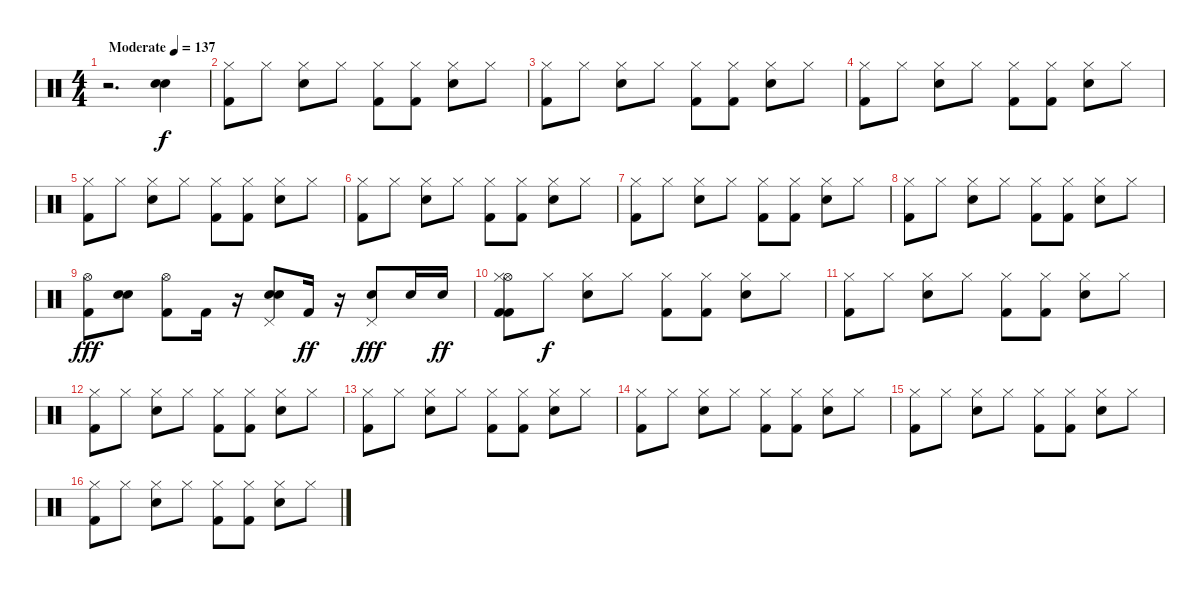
\track "" {instrument percussion}
\staff {score}
\articulation defaults
\ts (4 4)
\tempo (137 "Moderate")
\clef neutral
\ks c
r.2{d dy f} ("Electric Snare (hit)" "Electric Snare (hit)").4 |
("Kick (hit) 2" "Hi-Hat (closed)").8 "Hi-Hat (closed)".8 ("Hi-Hat (closed)" "Electric Snare (hit)").8 "Hi-Hat (closed)".8 ("Kick (hit) 2" "Hi-Hat (closed)").8 ("Kick (hit) 2" "Hi-Hat (closed)").8 ("Electric Snare (hit)" "Hi-Hat (closed)").8 "Hi-Hat (closed)".8 |
("Kick (hit) 2" "Hi-Hat (closed)").8 "Hi-Hat (closed)".8 ("Hi-Hat (closed)" "Electric Snare (hit)").8 "Hi-Hat (closed)".8 ("Kick (hit) 2" "Hi-Hat (closed)").8 ("Kick (hit) 2" "Hi-Hat (closed)").8 ("Electric Snare (hit)" "Hi-Hat (closed)").8 "Hi-Hat (closed)".8 |
("Kick (hit) 2" "Hi-Hat (closed)").8 "Hi-Hat (closed)".8 ("Hi-Hat (closed)" "Electric Snare (hit)").8 "Hi-Hat (closed)".8 ("Kick (hit) 2" "Hi-Hat (closed)").8 ("Kick (hit) 2" "Hi-Hat (closed)").8 ("Electric Snare (hit)" "Hi-Hat (closed)").8 "Hi-Hat (closed)".8 |
("Kick (hit) 2" "Hi-Hat (closed)").8 "Hi-Hat (closed)".8 ("Hi-Hat (closed)" "Electric Snare (hit)").8 "Hi-Hat (closed)".8 ("Kick (hit) 2" "Hi-Hat (closed)").8 ("Kick (hit) 2" "Hi-Hat (closed)").8 ("Electric Snare (hit)" "Hi-Hat (closed)").8 "Hi-Hat (closed)".8 |
("Kick (hit) 2" "Hi-Hat (closed)").8 "Hi-Hat (closed)".8 ("Hi-Hat (closed)" "Electric Snare (hit)").8 "Hi-Hat (closed)".8 ("Kick (hit) 2" "Hi-Hat (closed)").8 ("Kick (hit) 2" "Hi-Hat (closed)").8 ("Electric Snare (hit)" "Hi-Hat (closed)").8 "Hi-Hat (closed)".8 |
("Kick (hit) 2" "Hi-Hat (closed)").8 "Hi-Hat (closed)".8 ("Hi-Hat (closed)" "Electric Snare (hit)").8 "Hi-Hat (closed)".8 ("Kick (hit) 2" "Hi-Hat (closed)").8 ("Kick (hit) 2" "Hi-Hat (closed)").8 ("Electric Snare (hit)" "Hi-Hat (closed)").8 "Hi-Hat (closed)".8 |
("Kick (hit) 2" "Hi-Hat (closed)").8 "Hi-Hat (closed)".8 ("Hi-Hat (closed)" "Electric Snare (hit)").8 "Hi-Hat (closed)".8 ("Kick (hit) 2" "Hi-Hat (closed)").8 ("Kick (hit) 2" "Hi-Hat (closed)").8 ("Electric Snare (hit)" "Hi-Hat (closed)").8 "Hi-Hat (closed)".8 |
("Hi-Hat (open)" "Kick (hit) 2").8{dy fff} ("Electric Snare (hit)" "Electric Snare (hit)").8 ("Hi-Hat (open)" "Kick (hit) 2").8 "Kick (hit) 2".16 r.16 ("Electric Snare (hit)" "Pedal Hi-Hat (hit)" "Electric Snare (hit)").8 "Kick (hit) 2".16{dy ff} r.16 ("Pedal Hi-Hat (hit)" "Electric Snare (hit)").8{dy fff} "Electric Snare (hit)".16 "Electric Snare (hit)".16{dy ff} |
("Kick (hit) 2" "Hi-Hat (open)" "Kick (hit) 2" "Hi-Hat (closed)").8 "Hi-Hat (closed)".8{dy f} ("Hi-Hat (closed)" "Electric Snare (hit)").8 "Hi-Hat (closed)".8 ("Kick (hit) 2" "Hi-Hat (closed)").8 ("Kick (hit) 2" "Hi-Hat (closed)").8 ("Electric Snare (hit)" "Hi-Hat (closed)").8 "Hi-Hat (closed)".8 |
("Kick (hit) 2" "Hi-Hat (closed)").8 "Hi-Hat (closed)".8 ("Hi-Hat (closed)" "Electric Snare (hit)").8 "Hi-Hat (closed)".8 ("Kick (hit) 2" "Hi-Hat (closed)").8 ("Kick (hit) 2" "Hi-Hat (closed)").8 ("Electric Snare (hit)" "Hi-Hat (closed)").8 "Hi-Hat (closed)".8 |
("Kick (hit) 2" "Hi-Hat (closed)").8 "Hi-Hat (closed)".8 ("Hi-Hat (closed)" "Electric Snare (hit)").8 "Hi-Hat (closed)".8 ("Kick (hit) 2" "Hi-Hat (closed)").8 ("Kick (hit) 2" "Hi-Hat (closed)").8 ("Electric Snare (hit)" "Hi-Hat (closed)").8 "Hi-Hat (closed)".8 |
("Kick (hit) 2" "Hi-Hat (closed)").8 "Hi-Hat (closed)".8 ("Hi-Hat (closed)" "Electric Snare (hit)").8 "Hi-Hat (closed)".8 ("Kick (hit) 2" "Hi-Hat (closed)").8 ("Kick (hit) 2" "Hi-Hat (closed)").8 ("Electric Snare (hit)" "Hi-Hat (closed)").8 "Hi-Hat (closed)".8 |
("Kick (hit) 2" "Hi-Hat (closed)").8 "Hi-Hat (closed)".8 ("Hi-Hat (closed)" "Electric Snare (hit)").8 "Hi-Hat (closed)".8 ("Kick (hit) 2" "Hi-Hat (closed)").8 ("Kick (hit) 2" "Hi-Hat (closed)").8 ("Electric Snare (hit)" "Hi-Hat (closed)").8 "Hi-Hat (closed)".8 |
("Kick (hit) 2" "Hi-Hat (closed)").8 "Hi-Hat (closed)".8 ("Hi-Hat (closed)" "Electric Snare (hit)").8 "Hi-Hat (closed)".8 ("Kick (hit) 2" "Hi-Hat (closed)").8 ("Kick (hit) 2" "Hi-Hat (closed)").8 ("Electric Snare (hit)" "Hi-Hat (closed)").8 "Hi-Hat (closed)".8 |
("Kick (hit) 2" "Hi-Hat (closed)").8 "Hi-Hat (closed)".8 ("Hi-Hat (closed)" "Electric Snare (hit)").8 "Hi-Hat (closed)".8 ("Kick (hit) 2" "Hi-Hat (closed)").8 ("Kick (hit) 2" "Hi-Hat (closed)").8 ("Electric Snare (hit)" "Hi-Hat (closed)").8 "Hi-Hat (closed)".8
